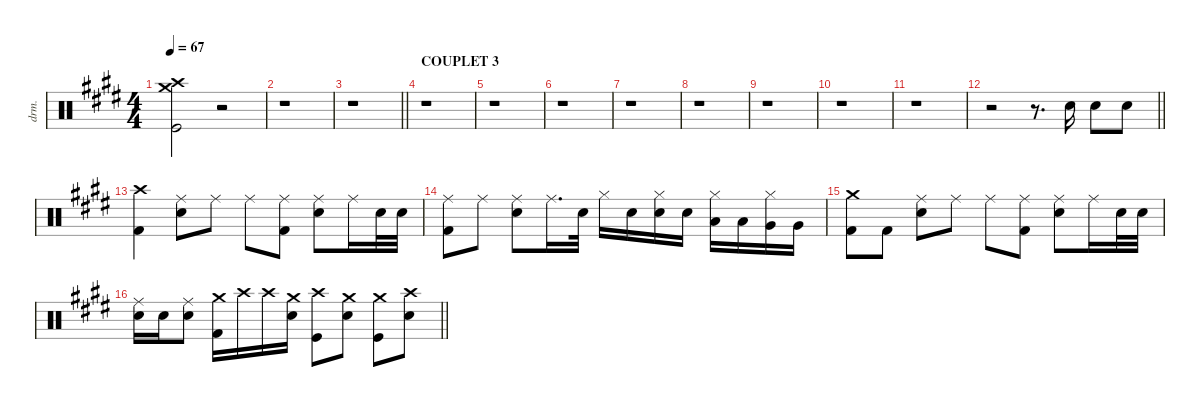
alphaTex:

\defaultSystemsLayout 4
\hideDynamics
\bracketExtendMode groupsimilarinstruments
\otherSystemsTrackNameOrientation horizontal
\track ("Drums" "drm.") {defaultSystemsLayout 4 instrument percussion}
\staff {score}
\articulation defaults
\ts (4 4)
\tempo 67
\clef neutral
\ks c#minor
("Kick (hit)"{acc forcenatural} "Crash high (hit)"{acc forcenatural} "Crash medium (hit)"{acc forcenatural}).2{dy f beam Down} r.2{beam Down} |
r.1{beam Down} |
\barLineRight lightlight
r.1{beam Down} |
\section ("" "COUPLET 3")
r.1{beam Down} |
r.1{beam Down} |
r.1{beam Down} |
r.1{beam Down} |
r.1{beam Down} |
r.1{beam Down} |
r.1{beam Down} |
r.1{beam Down} |
\barLineRight lightlight
r.2{beam Down} r.8{d beam Down} "Snare (hit) 2"{acc forcenatural}.16{beam Down} "Snare (hit) 2"{acc forcenatural}.8{beam Down} "Snare (hit) 2"{acc forcenatural}.8{beam Down} |
("Kick (hit) 2"{acc forcenatural} "Crash high (hit)"{acc forcenatural}).4{beam Down} ("Snare (hit) 2"{acc forcenatural} "Ride (middle)"{acc forcenatural}).8{beam Down} "Ride (middle)"{acc forcenatural}.8{beam Down} "Ride (middle)"{acc forcenatural}.8{beam Down} ("Kick (hit) 2"{acc forcenatural} "Ride (middle)"{acc forcenatural}).8{beam Down} ("Snare (hit) 2"{acc forcenatural} "Ride (middle)"{acc forcenatural}).8{beam Down} "Ride (middle)"{acc forcenatural}.16{beam Down} "Snare (hit) 2"{acc forcenatural}.32{beam Down} "Snare (hit) 2"{acc forcenatural}.32{beam Down} |
("Kick (hit) 2"{acc forcenatural} "Ride (middle)"{acc forcenatural}).8{beam Down} "Ride (middle)"{acc forcenatural}.8{beam Down} ("Snare (hit) 2"{acc forcenatural} "Ride (middle)"{acc forcenatural}).8{beam Down} "Ride (middle)"{acc forcenatural}.16{d beam Down} "Snare (hit) 2"{acc forcenatural}.32{dy fff beam Down} "Hi-Hat (closed)"{acc forcenatural}.16{dy f beam Down} "Snare (hit) 2"{acc forcenatural}.16{beam Down} ("Snare (hit) 2"{acc forcenatural} "Hi-Hat (closed)"{acc forcenatural}).16{beam Down} "Snare (hit) 2"{acc forcenatural}.16{beam Down} ("Low Tom (hit)"{acc forcenatural} "Hi-Hat (closed)"{acc forcenatural}).16{beam Down} "Low Tom (hit)"{acc forcenatural}.16{beam Down} ("Very Low Tom (hit)"{acc forcenatural} "Hi-Hat (closed)"{acc forcenatural}).16{beam Down} "Very Low Tom (hit)"{acc forcenatural}.16{beam Down} |
("Crash medium (hit)"{acc forcenatural} "Kick (hit) 2"{acc forcenatural}).8{beam Down} "Kick (hit) 2"{acc forcenatural}.8{beam Down} ("Ride (middle)"{acc forcenatural} "Snare (hit) 2"{acc forcenatural}).8{beam Down} "Ride (middle)"{acc forcenatural}.8{beam Down} "Ride (middle)"{acc forcenatural}.8{beam Down} ("Ride (middle)"{acc forcenatural} "Kick (hit) 2"{acc forcenatural}).8{beam Down} ("Snare (hit) 2"{acc forcenatural} "Ride (middle)"{acc forcenatural}).8{beam Down} "Ride (middle)"{acc forcenatural}.16{beam Down} "Snare (hit) 2"{acc forcenatural}.32{beam Down} "Snare (hit) 2"{acc forcenatural}.32{beam Down} |
\barLineRight lightlight
("Snare (hit) 2"{acc forcenatural} "Ride (middle)"{acc forcenatural}).16{beam Down} "Snare (hit) 2"{acc forcenatural}.16{beam Down} ("Snare (hit) 2"{acc forcenatural} "Ride (middle)"{acc forcenatural}).8{beam Down} ("Crash medium (hit)"{acc forcenatural} "Kick (hit) 2"{acc forcenatural}).16{beam Down} "Crash high (hit)"{acc forcenatural}.16{beam Down} "Crash high (hit)"{acc forcenatural}.16{beam Down} ("Snare (hit) 2"{acc forcenatural} "Crash medium (hit)"{acc forcenatural}).16{beam Down} ("Crash high (hit)"{acc forcenatural} "Kick (hit)"{acc forcenatural}).8{beam Down} ("Crash medium (hit)"{acc forcenatural} "Snare (hit) 2"{acc forcenatural}).8{beam Down} ("Crash medium (hit)"{acc forcenatural} "Kick (hit)"{acc forcenatural}).8{beam Down} ("Crash high (hit)"{acc forcenatural} "Snare (hit) 2"{acc forcenatural}).8{beam Down}
